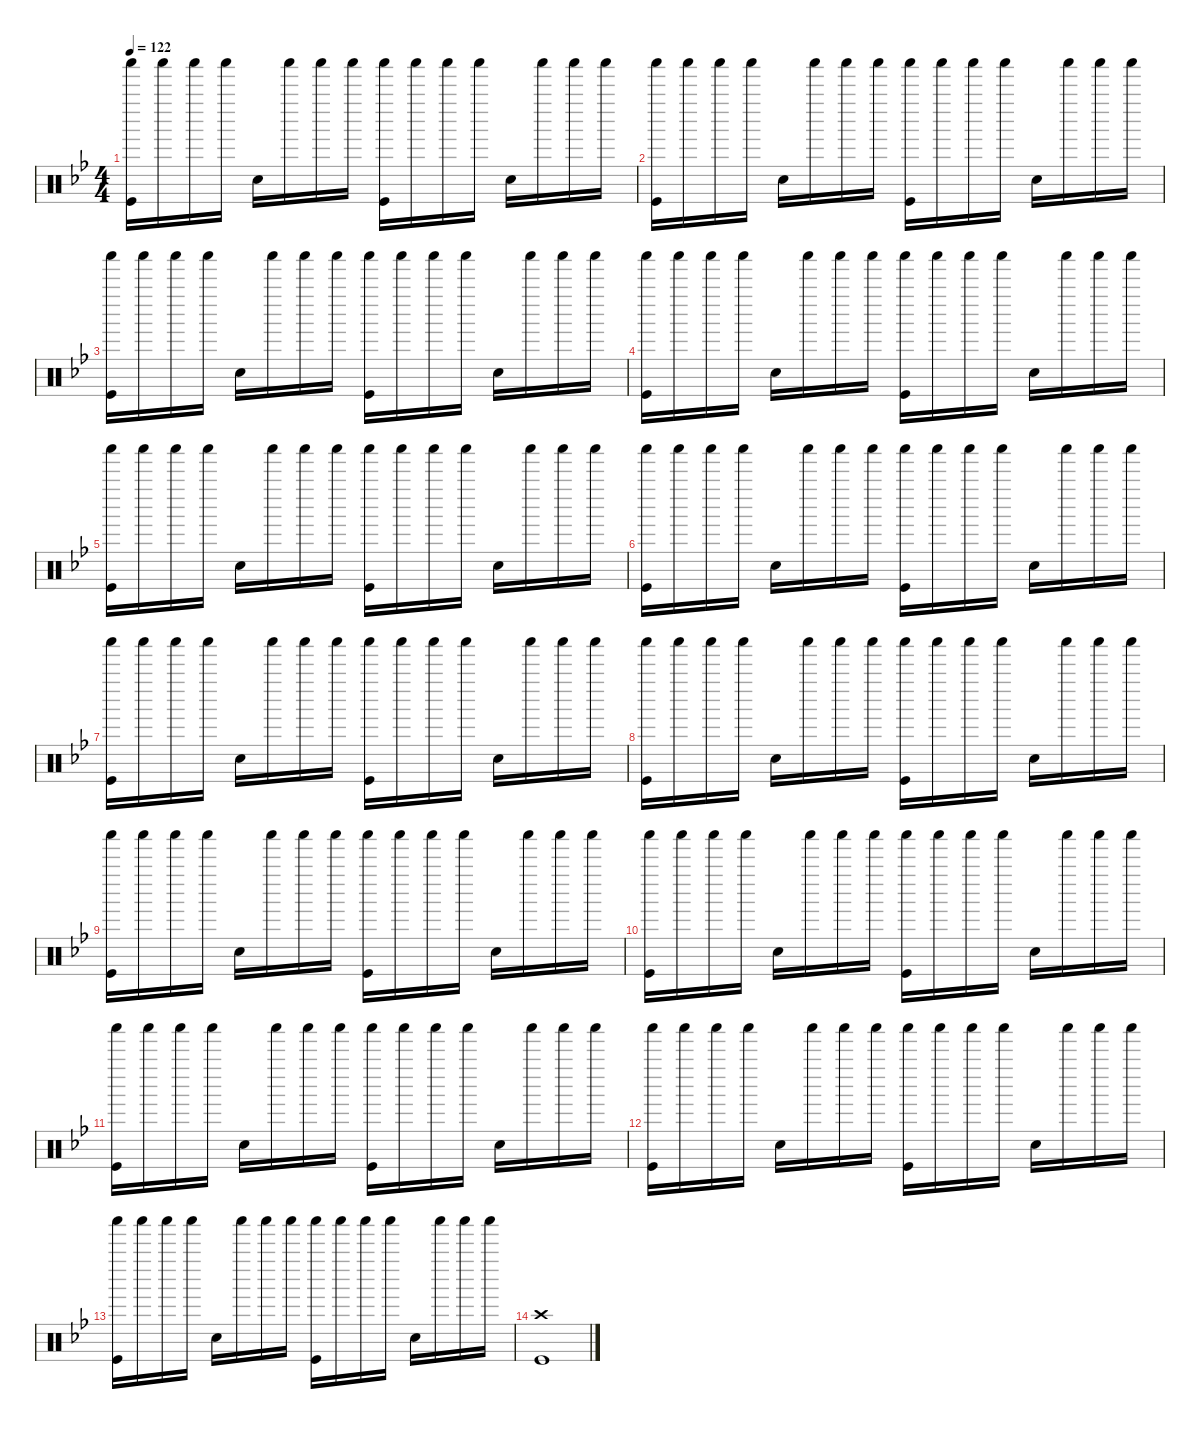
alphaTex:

\defaultSystemsLayout 4
\hideDynamics
\bracketExtendMode nobrackets
\singleTrackTrackNamePolicy hidden
\multiTrackTrackNamePolicy hidden
\firstSystemTrackNameMode fullname
\firstSystemTrackNameOrientation horizontal
\otherSystemsTrackNameOrientation horizontal
\track ("Percussions" "drm.") {instrument percussion}
\staff {score}
\articulation defaults
\ts (4 4)
\tempo 122
\clef neutral
\ks bb
("Shaker (hit)"{acc forcenatural} "Kick (hit)"{acc forcenatural}).16{dy f beam Down} "Shaker (hit)"{acc forcenatural}.16{dy mp beam Down} "Shaker (hit)"{acc forcenatural}.16{beam Down} "Shaker (hit)"{acc forcenatural}.16{beam Down} "Snare (hit) 2"{acc forcenatural}.16{dy f beam Down} "Shaker (hit)"{acc forcenatural}.16{dy mp beam Down} "Shaker (hit)"{acc forcenatural}.16{beam Down} "Shaker (hit)"{acc forcenatural}.16{beam Down} ("Shaker (hit)"{acc forcenatural} "Kick (hit)"{acc forcenatural}).16{dy f beam Down} "Shaker (hit)"{acc forcenatural}.16{dy mp beam Down} "Shaker (hit)"{acc forcenatural}.16{beam Down} "Shaker (hit)"{acc forcenatural}.16{beam Down} "Snare (hit) 2"{acc forcenatural}.16{dy f beam Down} "Shaker (hit)"{acc forcenatural}.16{dy mp beam Down} "Shaker (hit)"{acc forcenatural}.16{beam Down} "Shaker (hit)"{acc forcenatural}.16{beam Down} |
("Shaker (hit)"{acc forcenatural} "Kick (hit)"{acc forcenatural}).16{dy f beam Down} "Shaker (hit)"{acc forcenatural}.16{dy mp beam Down} "Shaker (hit)"{acc forcenatural}.16{beam Down} "Shaker (hit)"{acc forcenatural}.16{beam Down} "Snare (hit) 2"{acc forcenatural}.16{dy f beam Down} "Shaker (hit)"{acc forcenatural}.16{dy mp beam Down} "Shaker (hit)"{acc forcenatural}.16{beam Down} "Shaker (hit)"{acc forcenatural}.16{beam Down} ("Shaker (hit)"{acc forcenatural} "Kick (hit)"{acc forcenatural}).16{dy f beam Down} "Shaker (hit)"{acc forcenatural}.16{dy mp beam Down} "Shaker (hit)"{acc forcenatural}.16{beam Down} "Shaker (hit)"{acc forcenatural}.16{beam Down} "Snare (hit) 2"{acc forcenatural}.16{dy f beam Down} "Shaker (hit)"{acc forcenatural}.16{dy mp beam Down} "Shaker (hit)"{acc forcenatural}.16{beam Down} "Shaker (hit)"{acc forcenatural}.16{beam Down} |
("Shaker (hit)"{acc forcenatural} "Kick (hit)"{acc forcenatural}).16{dy f beam Down} "Shaker (hit)"{acc forcenatural}.16{dy mp beam Down} "Shaker (hit)"{acc forcenatural}.16{beam Down} "Shaker (hit)"{acc forcenatural}.16{beam Down} "Snare (hit) 2"{acc forcenatural}.16{dy f beam Down} "Shaker (hit)"{acc forcenatural}.16{dy mp beam Down} "Shaker (hit)"{acc forcenatural}.16{beam Down} "Shaker (hit)"{acc forcenatural}.16{beam Down} ("Shaker (hit)"{acc forcenatural} "Kick (hit)"{acc forcenatural}).16{dy f beam Down} "Shaker (hit)"{acc forcenatural}.16{dy mp beam Down} "Shaker (hit)"{acc forcenatural}.16{beam Down} "Shaker (hit)"{acc forcenatural}.16{beam Down} "Snare (hit) 2"{acc forcenatural}.16{dy f beam Down} "Shaker (hit)"{acc forcenatural}.16{dy mp beam Down} "Shaker (hit)"{acc forcenatural}.16{beam Down} "Shaker (hit)"{acc forcenatural}.16{beam Down} |
("Shaker (hit)"{acc forcenatural} "Kick (hit)"{acc forcenatural}).16{dy f beam Down} "Shaker (hit)"{acc forcenatural}.16{dy mp beam Down} "Shaker (hit)"{acc forcenatural}.16{beam Down} "Shaker (hit)"{acc forcenatural}.16{beam Down} "Snare (hit) 2"{acc forcenatural}.16{dy f beam Down} "Shaker (hit)"{acc forcenatural}.16{dy mp beam Down} "Shaker (hit)"{acc forcenatural}.16{beam Down} "Shaker (hit)"{acc forcenatural}.16{beam Down} ("Shaker (hit)"{acc forcenatural} "Kick (hit)"{acc forcenatural}).16{dy f beam Down} "Shaker (hit)"{acc forcenatural}.16{dy mp beam Down} "Shaker (hit)"{acc forcenatural}.16{beam Down} "Shaker (hit)"{acc forcenatural}.16{beam Down} "Snare (hit) 2"{acc forcenatural}.16{dy f beam Down} "Shaker (hit)"{acc forcenatural}.16{dy mp beam Down} "Shaker (hit)"{acc forcenatural}.16{beam Down} "Shaker (hit)"{acc forcenatural}.16{beam Down} |
("Shaker (hit)"{acc forcenatural} "Kick (hit)"{acc forcenatural}).16{dy f beam Down} "Shaker (hit)"{acc forcenatural}.16{dy mp beam Down} "Shaker (hit)"{acc forcenatural}.16{beam Down} "Shaker (hit)"{acc forcenatural}.16{beam Down} "Snare (hit) 2"{acc forcenatural}.16{dy f beam Down} "Shaker (hit)"{acc forcenatural}.16{dy mp beam Down} "Shaker (hit)"{acc forcenatural}.16{beam Down} "Shaker (hit)"{acc forcenatural}.16{beam Down} ("Shaker (hit)"{acc forcenatural} "Kick (hit)"{acc forcenatural}).16{dy f beam Down} "Shaker (hit)"{acc forcenatural}.16{dy mp beam Down} "Shaker (hit)"{acc forcenatural}.16{beam Down} "Shaker (hit)"{acc forcenatural}.16{beam Down} "Snare (hit) 2"{acc forcenatural}.16{dy f beam Down} "Shaker (hit)"{acc forcenatural}.16{dy mp beam Down} "Shaker (hit)"{acc forcenatural}.16{beam Down} "Shaker (hit)"{acc forcenatural}.16{beam Down} |
("Shaker (hit)"{acc forcenatural} "Kick (hit)"{acc forcenatural}).16{dy f beam Down} "Shaker (hit)"{acc forcenatural}.16{dy mp beam Down} "Shaker (hit)"{acc forcenatural}.16{beam Down} "Shaker (hit)"{acc forcenatural}.16{beam Down} "Snare (hit) 2"{acc forcenatural}.16{dy f beam Down} "Shaker (hit)"{acc forcenatural}.16{dy mp beam Down} "Shaker (hit)"{acc forcenatural}.16{beam Down} "Shaker (hit)"{acc forcenatural}.16{beam Down} ("Shaker (hit)"{acc forcenatural} "Kick (hit)"{acc forcenatural}).16{dy f beam Down} "Shaker (hit)"{acc forcenatural}.16{dy mp beam Down} "Shaker (hit)"{acc forcenatural}.16{beam Down} "Shaker (hit)"{acc forcenatural}.16{beam Down} "Snare (hit) 2"{acc forcenatural}.16{dy f beam Down} "Shaker (hit)"{acc forcenatural}.16{dy mp beam Down} "Shaker (hit)"{acc forcenatural}.16{beam Down} "Shaker (hit)"{acc forcenatural}.16{beam Down} |
("Shaker (hit)"{acc forcenatural} "Kick (hit)"{acc forcenatural}).16{dy f beam Down} "Shaker (hit)"{acc forcenatural}.16{dy mp beam Down} "Shaker (hit)"{acc forcenatural}.16{beam Down} "Shaker (hit)"{acc forcenatural}.16{beam Down} "Snare (hit) 2"{acc forcenatural}.16{dy f beam Down} "Shaker (hit)"{acc forcenatural}.16{dy mp beam Down} "Shaker (hit)"{acc forcenatural}.16{beam Down} "Shaker (hit)"{acc forcenatural}.16{beam Down} ("Shaker (hit)"{acc forcenatural} "Kick (hit)"{acc forcenatural}).16{dy f beam Down} "Shaker (hit)"{acc forcenatural}.16{dy mp beam Down} "Shaker (hit)"{acc forcenatural}.16{beam Down} "Shaker (hit)"{acc forcenatural}.16{beam Down} "Snare (hit) 2"{acc forcenatural}.16{dy f beam Down} "Shaker (hit)"{acc forcenatural}.16{dy mp beam Down} "Shaker (hit)"{acc forcenatural}.16{beam Down} "Shaker (hit)"{acc forcenatural}.16{beam Down} |
("Shaker (hit)"{acc forcenatural} "Kick (hit)"{acc forcenatural}).16{dy f beam Down} "Shaker (hit)"{acc forcenatural}.16{dy mp beam Down} "Shaker (hit)"{acc forcenatural}.16{beam Down} "Shaker (hit)"{acc forcenatural}.16{beam Down} "Snare (hit) 2"{acc forcenatural}.16{dy f beam Down} "Shaker (hit)"{acc forcenatural}.16{dy mp beam Down} "Shaker (hit)"{acc forcenatural}.16{beam Down} "Shaker (hit)"{acc forcenatural}.16{beam Down} ("Shaker (hit)"{acc forcenatural} "Kick (hit)"{acc forcenatural}).16{dy f beam Down} "Shaker (hit)"{acc forcenatural}.16{dy mp beam Down} "Shaker (hit)"{acc forcenatural}.16{beam Down} "Shaker (hit)"{acc forcenatural}.16{beam Down} "Snare (hit) 2"{acc forcenatural}.16{dy f beam Down} "Shaker (hit)"{acc forcenatural}.16{dy mp beam Down} "Shaker (hit)"{acc forcenatural}.16{beam Down} "Shaker (hit)"{acc forcenatural}.16{beam Down} |
("Shaker (hit)"{acc forcenatural} "Kick (hit)"{acc forcenatural}).16{dy f beam Down} "Shaker (hit)"{acc forcenatural}.16{dy mp beam Down} "Shaker (hit)"{acc forcenatural}.16{beam Down} "Shaker (hit)"{acc forcenatural}.16{beam Down} "Snare (hit) 2"{acc forcenatural}.16{dy f beam Down} "Shaker (hit)"{acc forcenatural}.16{dy mp beam Down} "Shaker (hit)"{acc forcenatural}.16{beam Down} "Shaker (hit)"{acc forcenatural}.16{beam Down} ("Shaker (hit)"{acc forcenatural} "Kick (hit)"{acc forcenatural}).16{dy f beam Down} "Shaker (hit)"{acc forcenatural}.16{dy mp beam Down} "Shaker (hit)"{acc forcenatural}.16{beam Down} "Shaker (hit)"{acc forcenatural}.16{beam Down} "Snare (hit) 2"{acc forcenatural}.16{dy f beam Down} "Shaker (hit)"{acc forcenatural}.16{dy mp beam Down} "Shaker (hit)"{acc forcenatural}.16{beam Down} "Shaker (hit)"{acc forcenatural}.16{beam Down} |
("Shaker (hit)"{acc forcenatural} "Kick (hit)"{acc forcenatural}).16{dy f beam Down} "Shaker (hit)"{acc forcenatural}.16{dy mp beam Down} "Shaker (hit)"{acc forcenatural}.16{beam Down} "Shaker (hit)"{acc forcenatural}.16{beam Down} "Snare (hit) 2"{acc forcenatural}.16{dy f beam Down} "Shaker (hit)"{acc forcenatural}.16{dy mp beam Down} "Shaker (hit)"{acc forcenatural}.16{beam Down} "Shaker (hit)"{acc forcenatural}.16{beam Down} ("Shaker (hit)"{acc forcenatural} "Kick (hit)"{acc forcenatural}).16{dy f beam Down} "Shaker (hit)"{acc forcenatural}.16{dy mp beam Down} "Shaker (hit)"{acc forcenatural}.16{beam Down} "Shaker (hit)"{acc forcenatural}.16{beam Down} "Snare (hit) 2"{acc forcenatural}.16{dy f beam Down} "Shaker (hit)"{acc forcenatural}.16{dy mp beam Down} "Shaker (hit)"{acc forcenatural}.16{beam Down} "Shaker (hit)"{acc forcenatural}.16{beam Down} |
("Shaker (hit)"{acc forcenatural} "Kick (hit)"{acc forcenatural}).16{dy f beam Down} "Shaker (hit)"{acc forcenatural}.16{dy mp beam Down} "Shaker (hit)"{acc forcenatural}.16{beam Down} "Shaker (hit)"{acc forcenatural}.16{beam Down} "Snare (hit) 2"{acc forcenatural}.16{dy f beam Down} "Shaker (hit)"{acc forcenatural}.16{dy mp beam Down} "Shaker (hit)"{acc forcenatural}.16{beam Down} "Shaker (hit)"{acc forcenatural}.16{beam Down} ("Shaker (hit)"{acc forcenatural} "Kick (hit)"{acc forcenatural}).16{dy f beam Down} "Shaker (hit)"{acc forcenatural}.16{dy mp beam Down} "Shaker (hit)"{acc forcenatural}.16{beam Down} "Shaker (hit)"{acc forcenatural}.16{beam Down} "Snare (hit) 2"{acc forcenatural}.16{dy f beam Down} "Shaker (hit)"{acc forcenatural}.16{dy mp beam Down} "Shaker (hit)"{acc forcenatural}.16{beam Down} "Shaker (hit)"{acc forcenatural}.16{beam Down} |
("Shaker (hit)"{acc forcenatural} "Kick (hit)"{acc forcenatural}).16{dy f beam Down} "Shaker (hit)"{acc forcenatural}.16{dy mp beam Down} "Shaker (hit)"{acc forcenatural}.16{beam Down} "Shaker (hit)"{acc forcenatural}.16{beam Down} "Snare (hit) 2"{acc forcenatural}.16{dy f beam Down} "Shaker (hit)"{acc forcenatural}.16{dy mp beam Down} "Shaker (hit)"{acc forcenatural}.16{beam Down} "Shaker (hit)"{acc forcenatural}.16{beam Down} ("Shaker (hit)"{acc forcenatural} "Kick (hit)"{acc forcenatural}).16{dy f beam Down} "Shaker (hit)"{acc forcenatural}.16{dy mp beam Down} "Shaker (hit)"{acc forcenatural}.16{beam Down} "Shaker (hit)"{acc forcenatural}.16{beam Down} "Snare (hit) 2"{acc forcenatural}.16{dy f beam Down} "Shaker (hit)"{acc forcenatural}.16{dy mp beam Down} "Shaker (hit)"{acc forcenatural}.16{beam Down} "Shaker (hit)"{acc forcenatural}.16{beam Down} |
("Shaker (hit)"{acc forcenatural} "Kick (hit)"{acc forcenatural}).16{dy f beam Down} "Shaker (hit)"{acc forcenatural}.16{dy mp beam Down} "Shaker (hit)"{acc forcenatural}.16{beam Down} "Shaker (hit)"{acc forcenatural}.16{beam Down} "Snare (hit) 2"{acc forcenatural}.16{dy f beam Down} "Shaker (hit)"{acc forcenatural}.16{dy mp beam Down} "Shaker (hit)"{acc forcenatural}.16{beam Down} "Shaker (hit)"{acc forcenatural}.16{beam Down} ("Shaker (hit)"{acc forcenatural} "Kick (hit)"{acc forcenatural}).16{dy f beam Down} "Shaker (hit)"{acc forcenatural}.16{dy mp beam Down} "Shaker (hit)"{acc forcenatural}.16{beam Down} "Shaker (hit)"{acc forcenatural}.16{beam Down} "Snare (hit) 2"{acc forcenatural}.16{dy f beam Down} "Shaker (hit)"{acc forcenatural}.16{dy mp beam Down} "Shaker (hit)"{acc forcenatural}.16{beam Down} "Shaker (hit)"{acc forcenatural}.16{beam Down} |
("Crash high (hit)"{acc forcenatural} "Kick (hit)"{acc forcenatural}).1{dy f beam Down}
